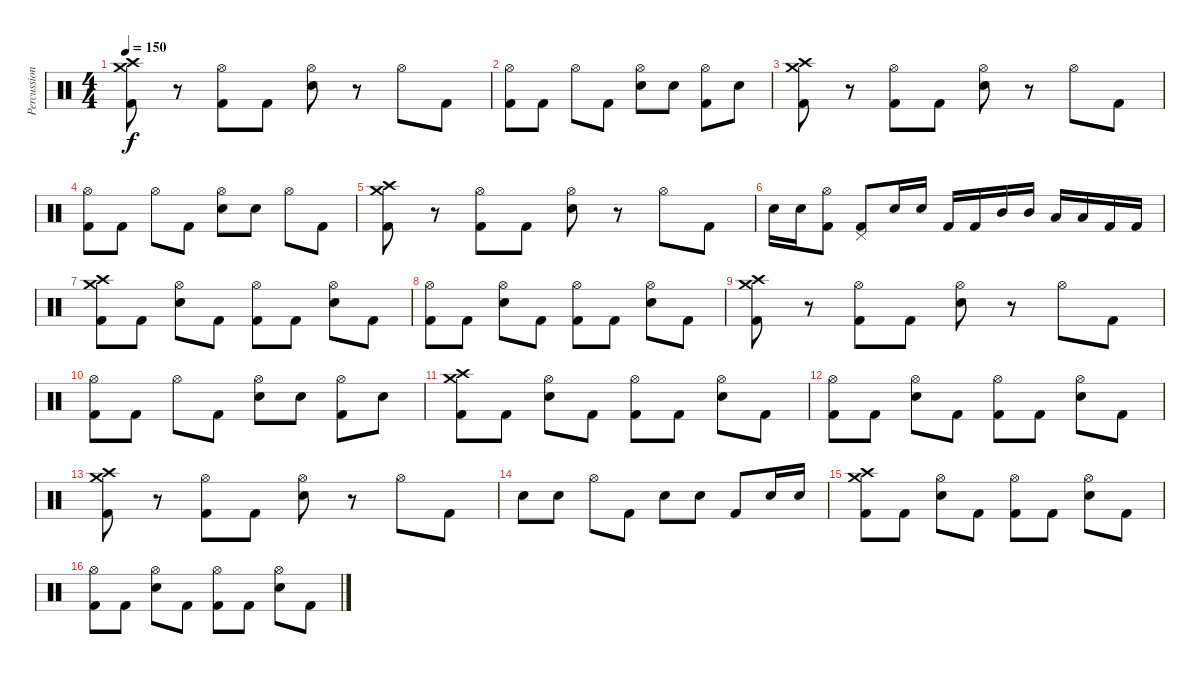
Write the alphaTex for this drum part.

\track ("Percussion" "Percussion") {instrument percussion}
\staff {score}
\articulation defaults
\ts (4 4)
\tempo 150
\clef neutral
\ks c
("Crash high (hit)" "Crash medium (hit)" "Kick (hit) 2").8{dy f} r.8 ("Hi-Hat (open)" "Kick (hit) 2").8 "Kick (hit) 2".8 ("Hi-Hat (open)" "Electric Snare (hit)").8 r.8 "Hi-Hat (open)".8 "Kick (hit) 2".8 |
("Hi-Hat (open)" "Kick (hit) 2").8 "Kick (hit) 2".8 "Hi-Hat (open)".8 "Kick (hit) 2".8 ("Hi-Hat (open)" "Electric Snare (hit)").8 "Electric Snare (hit)".8 ("Hi-Hat (open)" "Kick (hit) 2").8 "Electric Snare (hit)".8 |
("Crash high (hit)" "Crash medium (hit)" "Kick (hit) 2").8 r.8 ("Hi-Hat (open)" "Kick (hit) 2").8 "Kick (hit) 2".8 ("Hi-Hat (open)" "Electric Snare (hit)").8 r.8 "Hi-Hat (open)".8 "Kick (hit) 2".8 |
("Hi-Hat (open)" "Kick (hit) 2").8 "Kick (hit) 2".8 "Hi-Hat (open)".8 "Kick (hit) 2".8 ("Hi-Hat (open)" "Electric Snare (hit)").8 "Electric Snare (hit)".8 "Hi-Hat (open)".8 "Kick (hit) 2".8 |
("Crash high (hit)" "Crash medium (hit)" "Kick (hit) 2").8 r.8 ("Hi-Hat (open)" "Kick (hit) 2").8 "Kick (hit) 2".8 ("Hi-Hat (open)" "Electric Snare (hit)").8 r.8 "Hi-Hat (open)".8 "Kick (hit) 2".8 |
"Electric Snare (hit)".16 "Electric Snare (hit)".16 ("Hi-Hat (open)" "Kick (hit) 2").8 ("Pedal Hi-Hat (hit)" "Kick (hit) 2").8 "Electric Snare (hit)".16 "Electric Snare (hit)".16 "Kick (hit) 2".16 "Kick (hit) 2".16 "Mid Tom (hit)".16 "Mid Tom (hit)".16 "Low Tom (hit)".16 "Low Tom (hit)".16 "Kick (hit) 2".16 "Kick (hit) 2".16 |
("Crash high (hit)" "Crash medium (hit)" "Kick (hit) 2").8 "Kick (hit) 2".8 ("Hi-Hat (open)" "Electric Snare (hit)").8 "Kick (hit) 2".8 ("Hi-Hat (open)" "Kick (hit) 2").8 "Kick (hit) 2".8 ("Hi-Hat (open)" "Electric Snare (hit)").8 "Kick (hit) 2".8 |
("Hi-Hat (open)" "Kick (hit) 2").8 "Kick (hit) 2".8 ("Hi-Hat (open)" "Electric Snare (hit)").8 "Kick (hit) 2".8 ("Hi-Hat (open)" "Kick (hit) 2").8 "Kick (hit) 2".8 ("Hi-Hat (open)" "Electric Snare (hit)").8 "Kick (hit) 2".8 |
("Crash high (hit)" "Crash medium (hit)" "Kick (hit) 2").8 r.8 ("Hi-Hat (open)" "Kick (hit) 2").8 "Kick (hit) 2".8 ("Hi-Hat (open)" "Electric Snare (hit)").8 r.8 "Hi-Hat (open)".8 "Kick (hit) 2".8 |
("Hi-Hat (open)" "Kick (hit) 2").8 "Kick (hit) 2".8 "Hi-Hat (open)".8 "Kick (hit) 2".8 ("Hi-Hat (open)" "Electric Snare (hit)").8 "Electric Snare (hit)".8 ("Hi-Hat (open)" "Kick (hit) 2").8 "Electric Snare (hit)".8 |
("Crash high (hit)" "Crash medium (hit)" "Kick (hit) 2").8 "Kick (hit) 2".8 ("Hi-Hat (open)" "Electric Snare (hit)").8 "Kick (hit) 2".8 ("Hi-Hat (open)" "Kick (hit) 2").8 "Kick (hit) 2".8 ("Hi-Hat (open)" "Electric Snare (hit)").8 "Kick (hit) 2".8 |
("Hi-Hat (open)" "Kick (hit) 2").8 "Kick (hit) 2".8 ("Hi-Hat (open)" "Electric Snare (hit)").8 "Kick (hit) 2".8 ("Hi-Hat (open)" "Kick (hit) 2").8 "Kick (hit) 2".8 ("Hi-Hat (open)" "Electric Snare (hit)").8 "Kick (hit) 2".8 |
("Crash high (hit)" "Crash medium (hit)" "Kick (hit) 2").8 r.8 ("Hi-Hat (open)" "Kick (hit) 2").8 "Kick (hit) 2".8 ("Hi-Hat (open)" "Electric Snare (hit)").8 r.8 "Hi-Hat (open)".8 "Kick (hit) 2".8 |
"Electric Snare (hit)".8 "Electric Snare (hit)".8 "Hi-Hat (open)".8 "Kick (hit) 2".8 "Electric Snare (hit)".8 "Electric Snare (hit)".8 "Kick (hit) 2".8 "Electric Snare (hit)".16 "Electric Snare (hit)".16 |
("Crash high (hit)" "Crash medium (hit)" "Kick (hit) 2").8 "Kick (hit) 2".8 ("Hi-Hat (open)" "Electric Snare (hit)").8 "Kick (hit) 2".8 ("Hi-Hat (open)" "Kick (hit) 2").8 "Kick (hit) 2".8 ("Hi-Hat (open)" "Electric Snare (hit)").8 "Kick (hit) 2".8 |
("Hi-Hat (open)" "Kick (hit) 2").8 "Kick (hit) 2".8 ("Hi-Hat (open)" "Electric Snare (hit)").8 "Kick (hit) 2".8 ("Hi-Hat (open)" "Kick (hit) 2").8 "Kick (hit) 2".8 ("Hi-Hat (open)" "Electric Snare (hit)").8 "Kick (hit) 2".8
